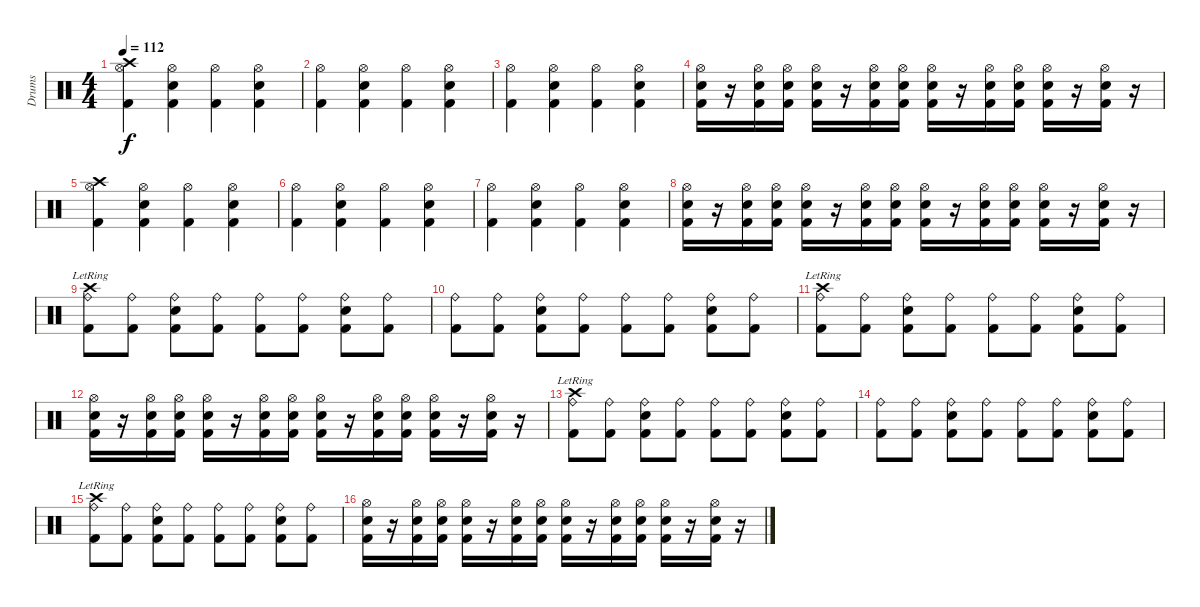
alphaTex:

\track ("Drums" "Drums") {instrument percussion}
\staff {score}
\articulation defaults
\ts (4 4)
\tempo 112
\clef neutral
\ks c
("Crash high (hit)" "Hi-Hat (open)" "Kick (hit) 2").4{dy f} ("Electric Snare (hit)" "Hi-Hat (open)" "Kick (hit) 2").4 ("Hi-Hat (open)" "Kick (hit) 2").4 ("Electric Snare (hit)" "Hi-Hat (open)" "Kick (hit) 2").4 |
("Hi-Hat (open)" "Kick (hit) 2").4 ("Electric Snare (hit)" "Hi-Hat (open)" "Kick (hit) 2").4 ("Hi-Hat (open)" "Kick (hit) 2").4 ("Electric Snare (hit)" "Hi-Hat (open)" "Kick (hit) 2").4 |
("Hi-Hat (open)" "Kick (hit) 2").4 ("Electric Snare (hit)" "Hi-Hat (open)" "Kick (hit) 2").4 ("Hi-Hat (open)" "Kick (hit) 2").4 ("Electric Snare (hit)" "Hi-Hat (open)" "Kick (hit) 2").4 |
("Hi-Hat (open)" "Electric Snare (hit)" "Kick (hit) 2").16 r.16 ("Hi-Hat (open)" "Snare (hit) 2" "Kick (hit) 2").16 ("Hi-Hat (open)" "Snare (hit) 2" "Kick (hit) 2").16 ("Hi-Hat (open)" "Electric Snare (hit)" "Kick (hit) 2").16 r.16 ("Hi-Hat (open)" "Snare (hit) 2" "Kick (hit) 2").16 ("Hi-Hat (open)" "Snare (hit) 2" "Kick (hit) 2").16 ("Hi-Hat (open)" "Electric Snare (hit)" "Kick (hit) 2").16 r.16 ("Hi-Hat (open)" "Snare (hit) 2" "Kick (hit) 2").16 ("Hi-Hat (open)" "Snare (hit) 2" "Kick (hit) 2").16 ("Hi-Hat (open)" "Electric Snare (hit)" "Kick (hit) 2").16 r.16 ("Hi-Hat (open)" "Snare (hit) 2" "Kick (hit) 2").16 r.16 |
("Crash high (hit)" "Hi-Hat (open)" "Kick (hit) 2").4 ("Electric Snare (hit)" "Hi-Hat (open)" "Kick (hit) 2").4 ("Hi-Hat (open)" "Kick (hit) 2").4 ("Electric Snare (hit)" "Hi-Hat (open)" "Kick (hit) 2").4 |
("Hi-Hat (open)" "Kick (hit) 2").4 ("Electric Snare (hit)" "Hi-Hat (open)" "Kick (hit) 2").4 ("Hi-Hat (open)" "Kick (hit) 2").4 ("Electric Snare (hit)" "Hi-Hat (open)" "Kick (hit) 2").4 |
("Hi-Hat (open)" "Kick (hit) 2").4 ("Electric Snare (hit)" "Hi-Hat (open)" "Kick (hit) 2").4 ("Hi-Hat (open)" "Kick (hit) 2").4 ("Electric Snare (hit)" "Hi-Hat (open)" "Kick (hit) 2").4 |
("Hi-Hat (open)" "Electric Snare (hit)" "Kick (hit) 2").16 r.16 ("Hi-Hat (open)" "Snare (hit) 2" "Kick (hit) 2").16 ("Hi-Hat (open)" "Snare (hit) 2" "Kick (hit) 2").16 ("Hi-Hat (open)" "Electric Snare (hit)" "Kick (hit) 2").16 r.16 ("Hi-Hat (open)" "Snare (hit) 2" "Kick (hit) 2").16 ("Hi-Hat (open)" "Snare (hit) 2" "Kick (hit) 2").16 ("Hi-Hat (open)" "Electric Snare (hit)" "Kick (hit) 2").16 r.16 ("Hi-Hat (open)" "Snare (hit) 2" "Kick (hit) 2").16 ("Hi-Hat (open)" "Snare (hit) 2" "Kick (hit) 2").16 ("Hi-Hat (open)" "Electric Snare (hit)" "Kick (hit) 2").16 r.16 ("Hi-Hat (open)" "Snare (hit) 2" "Kick (hit) 2").16 r.16 |
("Ride (bell)" "Kick (hit) 2" "Crash high (hit)"{lr}).8 ("Ride (bell)" "Kick (hit) 2").8 ("Ride (bell)" "Kick (hit) 2" "Electric Snare (hit)").8 ("Ride (bell)" "Kick (hit) 2").8 ("Ride (bell)" "Kick (hit) 2").8 ("Ride (bell)" "Kick (hit) 2").8 ("Ride (bell)" "Kick (hit) 2" "Electric Snare (hit)").8 ("Ride (bell)" "Kick (hit) 2").8 |
("Ride (bell)" "Kick (hit) 2").8 ("Ride (bell)" "Kick (hit) 2").8 ("Ride (bell)" "Kick (hit) 2" "Electric Snare (hit)").8 ("Ride (bell)" "Kick (hit) 2").8 ("Ride (bell)" "Kick (hit) 2").8 ("Ride (bell)" "Kick (hit) 2").8 ("Ride (bell)" "Kick (hit) 2" "Electric Snare (hit)").8 ("Ride (bell)" "Kick (hit) 2").8 |
("Ride (bell)" "Kick (hit) 2" "Crash high (hit)"{lr}).8 ("Ride (bell)" "Kick (hit) 2").8 ("Ride (bell)" "Kick (hit) 2" "Electric Snare (hit)").8 ("Ride (bell)" "Kick (hit) 2").8 ("Ride (bell)" "Kick (hit) 2").8 ("Ride (bell)" "Kick (hit) 2").8 ("Ride (bell)" "Kick (hit) 2" "Electric Snare (hit)").8 ("Ride (bell)" "Kick (hit) 2").8 |
("Hi-Hat (open)" "Electric Snare (hit)" "Kick (hit) 2").16 r.16 ("Hi-Hat (open)" "Snare (hit) 2" "Kick (hit) 2").16 ("Hi-Hat (open)" "Snare (hit) 2" "Kick (hit) 2").16 ("Hi-Hat (open)" "Electric Snare (hit)" "Kick (hit) 2").16 r.16 ("Hi-Hat (open)" "Snare (hit) 2" "Kick (hit) 2").16 ("Hi-Hat (open)" "Snare (hit) 2" "Kick (hit) 2").16 ("Hi-Hat (open)" "Electric Snare (hit)" "Kick (hit) 2").16 r.16 ("Hi-Hat (open)" "Snare (hit) 2" "Kick (hit) 2").16 ("Hi-Hat (open)" "Snare (hit) 2" "Kick (hit) 2").16 ("Hi-Hat (open)" "Electric Snare (hit)" "Kick (hit) 2").16 r.16 ("Hi-Hat (open)" "Snare (hit) 2" "Kick (hit) 2").16 r.16 |
("Ride (bell)" "Kick (hit) 2" "Crash high (hit)"{lr}).8 ("Ride (bell)" "Kick (hit) 2").8 ("Ride (bell)" "Kick (hit) 2" "Electric Snare (hit)").8 ("Ride (bell)" "Kick (hit) 2").8 ("Ride (bell)" "Kick (hit) 2").8 ("Ride (bell)" "Kick (hit) 2").8 ("Ride (bell)" "Kick (hit) 2" "Electric Snare (hit)").8 ("Ride (bell)" "Kick (hit) 2").8 |
("Ride (bell)" "Kick (hit) 2").8 ("Ride (bell)" "Kick (hit) 2").8 ("Ride (bell)" "Kick (hit) 2" "Electric Snare (hit)").8 ("Ride (bell)" "Kick (hit) 2").8 ("Ride (bell)" "Kick (hit) 2").8 ("Ride (bell)" "Kick (hit) 2").8 ("Ride (bell)" "Kick (hit) 2" "Electric Snare (hit)").8 ("Ride (bell)" "Kick (hit) 2").8 |
("Ride (bell)" "Kick (hit) 2" "Crash high (hit)"{lr}).8 ("Ride (bell)" "Kick (hit) 2").8 ("Ride (bell)" "Kick (hit) 2" "Electric Snare (hit)").8 ("Ride (bell)" "Kick (hit) 2").8 ("Ride (bell)" "Kick (hit) 2").8 ("Ride (bell)" "Kick (hit) 2").8 ("Ride (bell)" "Kick (hit) 2" "Electric Snare (hit)").8 ("Ride (bell)" "Kick (hit) 2").8 |
("Hi-Hat (open)" "Electric Snare (hit)" "Kick (hit) 2").16 r.16 ("Hi-Hat (open)" "Snare (hit) 2" "Kick (hit) 2").16 ("Hi-Hat (open)" "Snare (hit) 2" "Kick (hit) 2").16 ("Hi-Hat (open)" "Electric Snare (hit)" "Kick (hit) 2").16 r.16 ("Hi-Hat (open)" "Snare (hit) 2" "Kick (hit) 2").16 ("Hi-Hat (open)" "Snare (hit) 2" "Kick (hit) 2").16 ("Hi-Hat (open)" "Electric Snare (hit)" "Kick (hit) 2").16 r.16 ("Hi-Hat (open)" "Snare (hit) 2" "Kick (hit) 2").16 ("Hi-Hat (open)" "Snare (hit) 2" "Kick (hit) 2").16 ("Hi-Hat (open)" "Electric Snare (hit)" "Kick (hit) 2").16 r.16 ("Hi-Hat (open)" "Snare (hit) 2" "Kick (hit) 2").16 r.16
